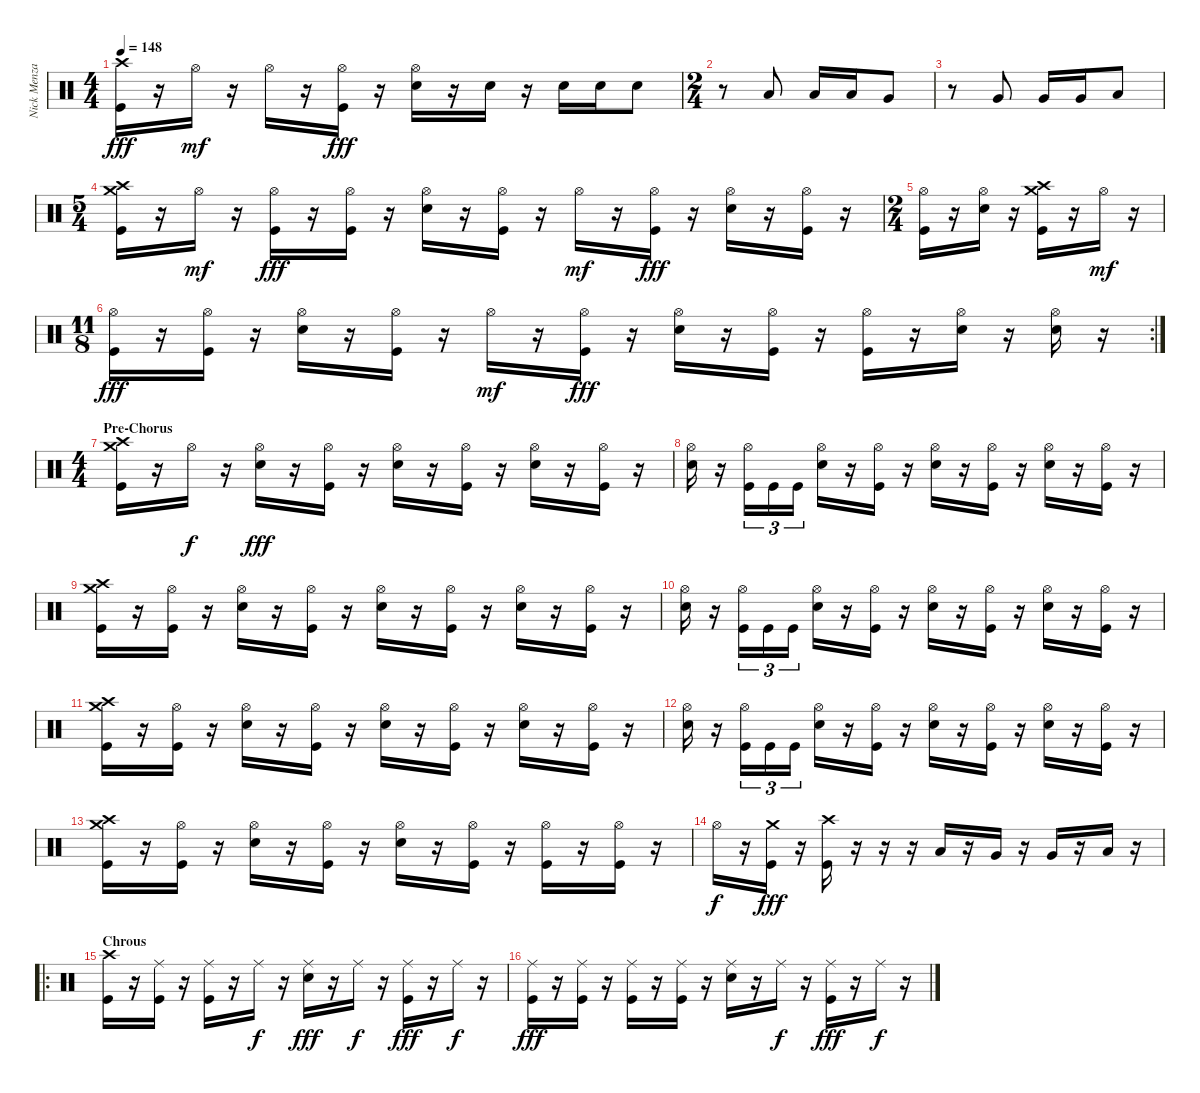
\track ("Nick Menza" "Nick Menza") {instrument percussion}
\staff {score}
\articulation defaults
\ts (4 4)
\tempo 148
\clef neutral
\ks c
("Kick (hit)" "Crash high (hit)").16{dy fff} r.16 "Hi-Hat (open)".16{dy mf} r.16 "Hi-Hat (open)".16 r.16 ("Kick (hit)" "Hi-Hat (open)").16{dy fff} r.16 ("Snare (hit) 2" "Hi-Hat (open)").16 r.16 "Snare (hit) 2".16 r.16 "Snare (hit) 2".16 "Snare (hit) 2".16 "Snare (hit) 2".8 |
\ts (2 4)
r.8 "Low Tom (hit)".8 "Low Tom (hit)".16 "Low Tom (hit)".16 "Very Low Tom (hit)".8 |
r.8 "Very Low Tom (hit)".8 "Very Low Tom (hit)".16 "Very Low Tom (hit)".16 "Low Floor Tom (hit)".8 |
\ts (5 4)
("Kick (hit)" "Crash high (hit)" "Crash medium (hit)").16 r.16 "Hi-Hat (open)".16{dy mf} r.16 ("Kick (hit)" "Hi-Hat (open)").16{dy fff} r.16 ("Kick (hit)" "Hi-Hat (open)").16 r.16 ("Snare (hit) 2" "Hi-Hat (open)").16 r.16 ("Kick (hit)" "Hi-Hat (open)").16 r.16 "Hi-Hat (open)".16{dy mf} r.16 ("Kick (hit)" "Hi-Hat (open)").16{dy fff} r.16 ("Snare (hit) 2" "Hi-Hat (open)").16 r.16 ("Kick (hit)" "Hi-Hat (open)").16 r.16 |
\ts (2 4)
("Kick (hit)" "Hi-Hat (open)").16 r.16 ("Snare (hit) 2" "Hi-Hat (open)").16 r.16 ("Kick (hit)" "Crash high (hit)" "Crash medium (hit)").16 r.16 "Hi-Hat (open)".16{dy mf} r.16 |
\rc 2
\ts (11 8)
("Kick (hit)" "Hi-Hat (open)").16{dy fff} r.16 ("Kick (hit)" "Hi-Hat (open)").16 r.16 ("Snare (hit) 2" "Hi-Hat (open)").16 r.16 ("Kick (hit)" "Hi-Hat (open)").16 r.16 "Hi-Hat (open)".16{dy mf} r.16 ("Kick (hit)" "Hi-Hat (open)").16{dy fff} r.16 ("Snare (hit) 2" "Hi-Hat (open)").16 r.16 ("Kick (hit)" "Hi-Hat (open)").16 r.16 ("Kick (hit)" "Hi-Hat (open)").16 r.16 ("Snare (hit) 2" "Hi-Hat (open)").16 r.16 ("Snare (hit) 2" "Hi-Hat (open)").16 r.16 |
\ts (4 4)
\section ("" "Pre-Chorus")
("Kick (hit)" "Crash high (hit)" "Crash medium (hit)").16 r.16 "Hi-Hat (open)".16{dy f} r.16 ("Snare (hit) 2" "Hi-Hat (open)").16{dy fff} r.16 ("Kick (hit)" "Hi-Hat (open)").16 r.16 ("Snare (hit) 2" "Hi-Hat (open)").16 r.16 ("Kick (hit)" "Hi-Hat (open)").16 r.16 ("Snare (hit) 2" "Hi-Hat (open)").16 r.16 ("Kick (hit)" "Hi-Hat (open)").16 r.16 |
("Snare (hit) 2" "Hi-Hat (open)").16 r.16 ("Kick (hit)" "Hi-Hat (open)").16{tu (3 2)} "Kick (hit)".16{tu (3 2)} "Kick (hit)".16{tu (3 2)} ("Snare (hit) 2" "Hi-Hat (open)").16 r.16 ("Kick (hit)" "Hi-Hat (open)").16 r.16 ("Snare (hit) 2" "Hi-Hat (open)").16 r.16 ("Kick (hit)" "Hi-Hat (open)").16 r.16 ("Snare (hit) 2" "Hi-Hat (open)").16 r.16 ("Kick (hit)" "Hi-Hat (open)").16 r.16 |
("Kick (hit)" "Crash high (hit)" "Crash medium (hit)").16 r.16 ("Kick (hit)" "Hi-Hat (open)").16 r.16 ("Snare (hit) 2" "Hi-Hat (open)").16 r.16 ("Kick (hit)" "Hi-Hat (open)").16 r.16 ("Snare (hit) 2" "Hi-Hat (open)").16 r.16 ("Kick (hit)" "Hi-Hat (open)").16 r.16 ("Snare (hit) 2" "Hi-Hat (open)").16 r.16 ("Kick (hit)" "Hi-Hat (open)").16 r.16 |
("Snare (hit) 2" "Hi-Hat (open)").16 r.16 ("Kick (hit)" "Hi-Hat (open)").16{tu (3 2)} "Kick (hit)".16{tu (3 2)} "Kick (hit)".16{tu (3 2)} ("Snare (hit) 2" "Hi-Hat (open)").16 r.16 ("Kick (hit)" "Hi-Hat (open)").16 r.16 ("Snare (hit) 2" "Hi-Hat (open)").16 r.16 ("Kick (hit)" "Hi-Hat (open)").16 r.16 ("Snare (hit) 2" "Hi-Hat (open)").16 r.16 ("Kick (hit)" "Hi-Hat (open)").16 r.16 |
("Kick (hit)" "Crash high (hit)" "Crash medium (hit)").16 r.16 ("Kick (hit)" "Hi-Hat (open)").16 r.16 ("Snare (hit) 2" "Hi-Hat (open)").16 r.16 ("Kick (hit)" "Hi-Hat (open)").16 r.16 ("Snare (hit) 2" "Hi-Hat (open)").16 r.16 ("Kick (hit)" "Hi-Hat (open)").16 r.16 ("Snare (hit) 2" "Hi-Hat (open)").16 r.16 ("Kick (hit)" "Hi-Hat (open)").16 r.16 |
("Snare (hit) 2" "Hi-Hat (open)").16 r.16 ("Kick (hit)" "Hi-Hat (open)").16{tu (3 2)} "Kick (hit)".16{tu (3 2)} "Kick (hit)".16{tu (3 2)} ("Snare (hit) 2" "Hi-Hat (open)").16 r.16 ("Kick (hit)" "Hi-Hat (open)").16 r.16 ("Snare (hit) 2" "Hi-Hat (open)").16 r.16 ("Kick (hit)" "Hi-Hat (open)").16 r.16 ("Snare (hit) 2" "Hi-Hat (open)").16 r.16 ("Kick (hit)" "Hi-Hat (open)").16 r.16 |
("Kick (hit)" "Crash high (hit)" "Crash medium (hit)").16 r.16 ("Kick (hit)" "Hi-Hat (open)").16 r.16 ("Snare (hit) 2" "Hi-Hat (open)").16 r.16 ("Kick (hit)" "Hi-Hat (open)").16 r.16 ("Snare (hit) 2" "Hi-Hat (open)").16 r.16 ("Kick (hit)" "Hi-Hat (open)").16 r.16 ("Kick (hit)" "Hi-Hat (open)").16 r.16 ("Kick (hit)" "Hi-Hat (open)").16 r.16 |
"Hi-Hat (open)".16{dy f} r.16 ("Kick (hit)" "Crash medium (hit)").16{dy fff} r.16 ("Kick (hit)" "Crash high (hit)").16 r.16 r.16 r.16 "Low Tom (hit)".16 r.16 "Very Low Tom (hit)".16 r.16 "Very Low Tom (hit)".16 r.16 "Low Floor Tom (hit)".16 r.16 |
\ro
\section ("" "Chrous")
("Kick (hit)" "Crash high (hit)").16 r.16 ("Kick (hit)" "Ride (middle)").16 r.16 ("Kick (hit)" "Ride (middle)").16 r.16 "Ride (middle)".16{dy f} r.16 ("Snare (hit) 2" "Ride (middle)").16{dy fff} r.16 "Ride (middle)".16{dy f} r.16 ("Kick (hit)" "Ride (middle)").16{dy fff} r.16 "Ride (middle)".16{dy f} r.16 |
("Kick (hit)" "Ride (middle)").16{dy fff} r.16 ("Kick (hit)" "Ride (middle)").16 r.16 ("Kick (hit)" "Ride (middle)").16 r.16 ("Kick (hit)" "Ride (middle)").16 r.16 ("Snare (hit) 2" "Ride (middle)").16 r.16 "Ride (middle)".16{dy f} r.16 ("Kick (hit)" "Ride (middle)").16{dy fff} r.16 "Ride (middle)".16{dy f} r.16
